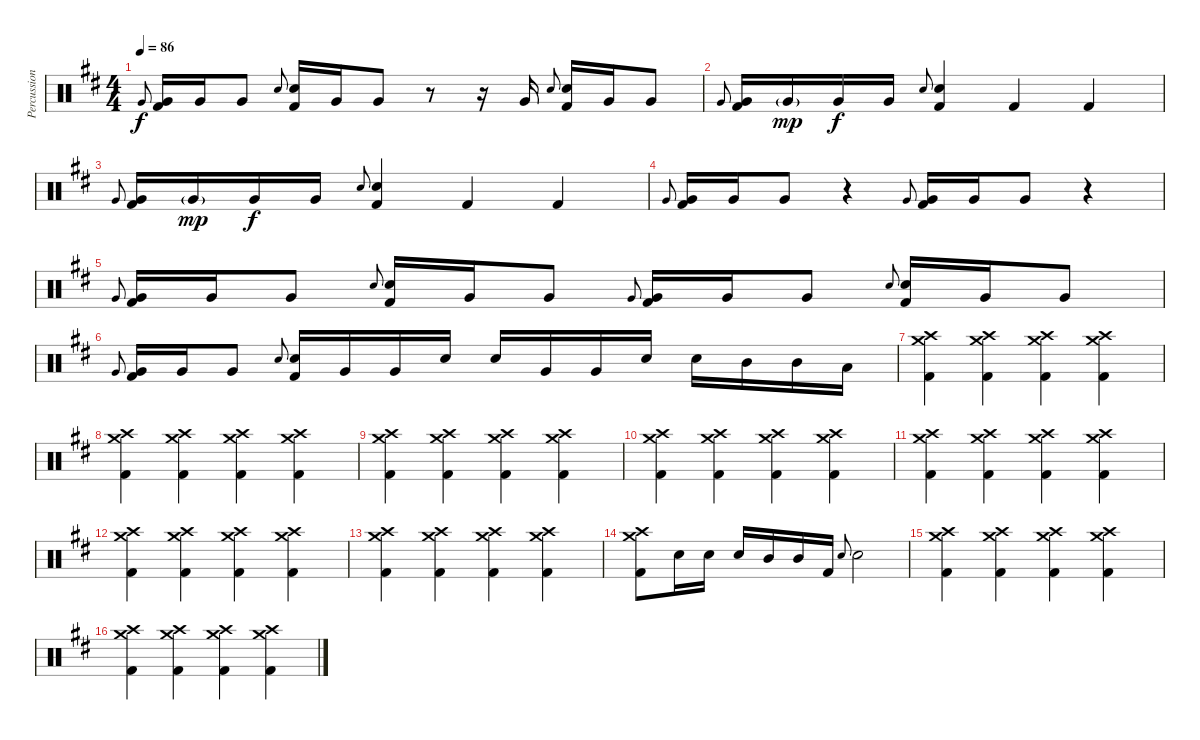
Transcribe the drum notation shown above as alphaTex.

\track ("Percussion" "Percussion") {instrument percussion}
\staff {score}
\articulation defaults
\ts (4 4)
\tempo 86
\clef neutral
\ks d "Very Low Tom (hit)".8{gr onbeat dy f}
("Very Low Tom (hit)" "Kick (hit) 2").16 "Very Low Tom (hit)".16 "Very Low Tom (hit)".8 "Electric Snare (hit)".8{gr onbeat} ("Electric Snare (hit)" "Kick (hit) 2").16 "Very Low Tom (hit)".16 "Very Low Tom (hit)".8 r.8 r.16 "Very Low Tom (hit)".16 "Electric Snare (hit)".8{gr onbeat} ("Electric Snare (hit)" "Kick (hit) 2").16 "Very Low Tom (hit)".16 "Very Low Tom (hit)".8 |
"Very Low Tom (hit)".8{gr onbeat} ("Very Low Tom (hit)" "Kick (hit) 2").16 "Very Low Tom (hit)"{g}.16{dy mp} "Very Low Tom (hit)".16{dy f} "Very Low Tom (hit)".16 "Electric Snare (hit)".8{gr onbeat} ("Electric Snare (hit)" "Kick (hit) 2").4 "Kick (hit) 2".4 "Kick (hit) 2".4 |
"Very Low Tom (hit)".8{gr onbeat} ("Very Low Tom (hit)" "Kick (hit) 2").16 "Very Low Tom (hit)"{g}.16{dy mp} "Very Low Tom (hit)".16{dy f} "Very Low Tom (hit)".16 "Electric Snare (hit)".8{gr onbeat} ("Electric Snare (hit)" "Kick (hit) 2").4 "Kick (hit) 2".4 "Kick (hit) 2".4 |
"Very Low Tom (hit)".8{gr onbeat} ("Very Low Tom (hit)" "Kick (hit) 2").16 "Very Low Tom (hit)".16 "Very Low Tom (hit)".8 r.4 "Very Low Tom (hit)".8{gr onbeat} ("Very Low Tom (hit)" "Kick (hit) 2").16 "Very Low Tom (hit)".16 "Very Low Tom (hit)".8 r.4 |
"Very Low Tom (hit)".8{gr onbeat} ("Very Low Tom (hit)" "Kick (hit) 2").16 "Very Low Tom (hit)".16 "Very Low Tom (hit)".8 "Electric Snare (hit)".8{gr onbeat} ("Electric Snare (hit)" "Kick (hit) 2").16 "Very Low Tom (hit)".16 "Very Low Tom (hit)".8 "Very Low Tom (hit)".8{gr onbeat} ("Very Low Tom (hit)" "Kick (hit) 2").16 "Very Low Tom (hit)".16 "Very Low Tom (hit)".8 "Electric Snare (hit)".8{gr onbeat} ("Electric Snare (hit)" "Kick (hit) 2").16 "Very Low Tom (hit)".16 "Very Low Tom (hit)".8 |
"Very Low Tom (hit)".8{gr onbeat} ("Very Low Tom (hit)" "Kick (hit) 2").16 "Very Low Tom (hit)".16 "Very Low Tom (hit)".8 "Electric Snare (hit)".8{gr onbeat} ("Electric Snare (hit)" "Kick (hit) 2").16 "Very Low Tom (hit)".16 "Very Low Tom (hit)".16 "Electric Snare (hit)".16 "Electric Snare (hit)".16 "Very Low Tom (hit)".16 "Very Low Tom (hit)".16 "Electric Snare (hit)".16 "Electric Snare (hit)".16 "Mid Tom (hit)".16 "Mid Tom (hit)".16 "Low Tom (hit)".16 |
("Crash medium (hit)" "Crash high (hit)" "Kick (hit) 2").4 ("Crash medium (hit)" "Crash high (hit)" "Kick (hit) 2").4 ("Crash medium (hit)" "Crash high (hit)" "Kick (hit) 2").4 ("Crash medium (hit)" "Crash high (hit)" "Kick (hit) 2").4 |
("Crash medium (hit)" "Crash high (hit)" "Kick (hit) 2").4 ("Crash medium (hit)" "Crash high (hit)" "Kick (hit) 2").4 ("Crash medium (hit)" "Crash high (hit)" "Kick (hit) 2").4 ("Crash medium (hit)" "Crash high (hit)" "Kick (hit) 2").4 |
("Crash medium (hit)" "Crash high (hit)" "Kick (hit) 2").4 ("Crash medium (hit)" "Crash high (hit)" "Kick (hit) 2").4 ("Crash medium (hit)" "Crash high (hit)" "Kick (hit) 2").4 ("Crash medium (hit)" "Crash high (hit)" "Kick (hit) 2").4 |
("Crash medium (hit)" "Crash high (hit)" "Kick (hit) 2").4 ("Crash medium (hit)" "Crash high (hit)" "Kick (hit) 2").4 ("Crash medium (hit)" "Crash high (hit)" "Kick (hit) 2").4 ("Crash medium (hit)" "Crash high (hit)" "Kick (hit) 2").4 |
("Crash medium (hit)" "Crash high (hit)" "Kick (hit) 2").4 ("Crash medium (hit)" "Crash high (hit)" "Kick (hit) 2").4 ("Crash medium (hit)" "Crash high (hit)" "Kick (hit) 2").4 ("Crash medium (hit)" "Crash high (hit)" "Kick (hit) 2").4 |
("Crash medium (hit)" "Crash high (hit)" "Kick (hit) 2").4 ("Crash medium (hit)" "Crash high (hit)" "Kick (hit) 2").4 ("Crash medium (hit)" "Crash high (hit)" "Kick (hit) 2").4 ("Crash medium (hit)" "Crash high (hit)" "Kick (hit) 2").4 |
("Crash medium (hit)" "Crash high (hit)" "Kick (hit) 2").4 ("Crash medium (hit)" "Crash high (hit)" "Kick (hit) 2").4 ("Crash medium (hit)" "Crash high (hit)" "Kick (hit) 2").4 ("Crash medium (hit)" "Crash high (hit)" "Kick (hit) 2").4 |
("Crash medium (hit)" "Crash high (hit)" "Kick (hit) 2").8 "Electric Snare (hit)".16 "Electric Snare (hit)".16 "Electric Snare (hit)".16 "Mid Tom (hit)".16 "Mid Tom (hit)".16 "Kick (hit) 2".16 "Electric Snare (hit)".8{gr onbeat} "Electric Snare (hit)".2 |
("Crash medium (hit)" "Crash high (hit)" "Kick (hit) 2").4 ("Crash medium (hit)" "Crash high (hit)" "Kick (hit) 2").4 ("Crash medium (hit)" "Crash high (hit)" "Kick (hit) 2").4 ("Crash medium (hit)" "Crash high (hit)" "Kick (hit) 2").4 |
("Crash medium (hit)" "Crash high (hit)" "Kick (hit) 2").4 ("Crash medium (hit)" "Crash high (hit)" "Kick (hit) 2").4 ("Crash medium (hit)" "Crash high (hit)" "Kick (hit) 2").4 ("Crash medium (hit)" "Crash high (hit)" "Kick (hit) 2").4
